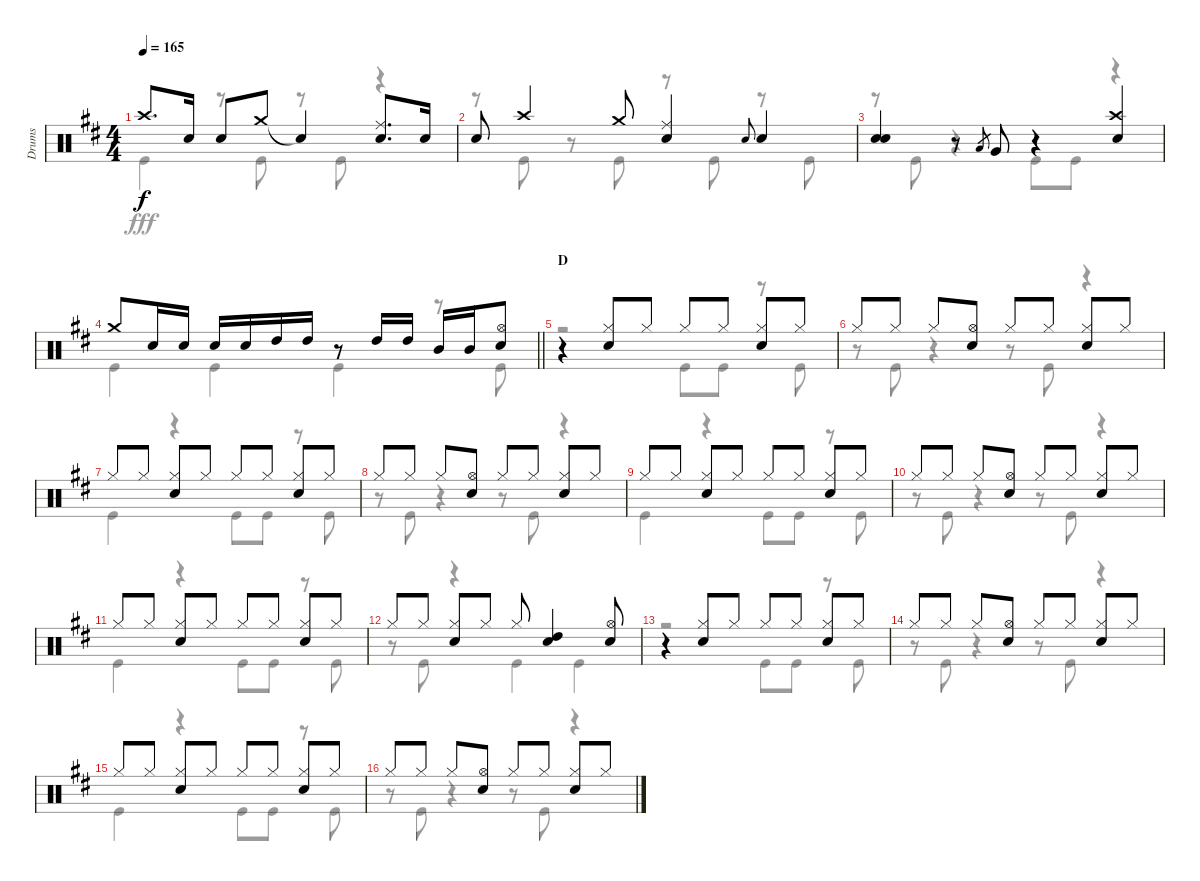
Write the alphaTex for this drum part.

\track ("Drums" "Drums") {instrument percussion}
\staff {score}
\articulation defaults
\voice
\ts (4 4)
\tempo 165
\clef neutral
\ks d "Crash high (hit)".8{d dy f} "Snare (hit) 2".16 "Snare (hit) 2".8 "Crash medium (hit)".8 "Snare (hit)"{t}.4
("Ride (middle)" "Snare (hit) 2").8{d} "Snare (hit) 2".16 |
"Snare (hit) 2".8 "Crash high (hit)".4 "Crash medium (hit)".8 ("Ride (middle)" "Snare (hit) 2").4 "Snare (hit) 2".8{gr onbeat} "Snare (hit) 2".4 |
("Snare (hit) 2" "Snare (hit) 2").4 r.8 "Low Tom (hit)".8{gr} "Very Low Tom (hit)".8 r.4 ("Crash high (hit)" "Snare (hit) 2").4 |
\barLineRight lightlight "Crash medium (hit)".8 "Snare (hit) 2".16 "Snare (hit) 2".16 "Snare (hit) 2".16 "Snare (hit) 2".16 "High Tom (hit)".16 "High Tom (hit)".16
r.8 "High Tom (hit)".16 "High Tom (hit)".16 "Mid Tom (hit)".16 "Mid Tom (hit)".16 ("Hi-Hat (open)" "Snare (hit) 2").8 |
\section ("" "D")
r.4 ("Hi-Hat (closed)" "Snare (hit) 2").8 "Hi-Hat (closed)".8 "Hi-Hat (closed)".8 "Hi-Hat (closed)".8 ("Hi-Hat (closed)" "Snare (hit) 2").8 "Hi-Hat (closed)".8 |
"Hi-Hat (closed)".8 "Hi-Hat (closed)".8 "Hi-Hat (closed)".8 ("Hi-Hat (open)" "Snare (hit) 2").8 "Hi-Hat (closed)".8 "Hi-Hat (closed)".8 ("Hi-Hat (closed)" "Snare (hit) 2").8 "Hi-Hat (closed)".8 |
"Hi-Hat (closed)".8 "Hi-Hat (closed)".8 ("Hi-Hat (closed)" "Snare (hit) 2").8 "Hi-Hat (closed)".8 "Hi-Hat (closed)".8 "Hi-Hat (closed)".8 ("Hi-Hat (closed)" "Snare (hit) 2").8 "Hi-Hat (closed)".8 |
"Hi-Hat (closed)".8 "Hi-Hat (closed)".8 "Hi-Hat (closed)".8 ("Hi-Hat (open)" "Snare (hit) 2").8 "Hi-Hat (closed)".8 "Hi-Hat (closed)".8 ("Hi-Hat (closed)" "Snare (hit) 2").8 "Hi-Hat (closed)".8 |
"Hi-Hat (closed)".8 "Hi-Hat (closed)".8 ("Hi-Hat (closed)" "Snare (hit) 2").8 "Hi-Hat (closed)".8 "Hi-Hat (closed)".8 "Hi-Hat (closed)".8 ("Hi-Hat (closed)" "Snare (hit) 2").8 "Hi-Hat (closed)".8 |
"Hi-Hat (closed)".8 "Hi-Hat (closed)".8 "Hi-Hat (closed)".8 ("Hi-Hat (open)" "Snare (hit) 2").8 "Hi-Hat (closed)".8 "Hi-Hat (closed)".8 ("Hi-Hat (closed)" "Snare (hit) 2").8 "Hi-Hat (closed)".8 |
"Hi-Hat (closed)".8 "Hi-Hat (closed)".8 ("Hi-Hat (closed)" "Snare (hit) 2").8 "Hi-Hat (closed)".8 "Hi-Hat (closed)".8 "Hi-Hat (closed)".8 ("Hi-Hat (closed)" "Snare (hit) 2").8 "Hi-Hat (closed)".8 |
"Hi-Hat (closed)".8 "Hi-Hat (closed)".8 ("Hi-Hat (closed)" "Snare (hit) 2").8 "Hi-Hat (closed)".8 "Hi-Hat (closed)".8 ("High Tom (hit)" "Snare (hit) 2").4 ("Hi-Hat (open)" "Snare (hit) 2").8 |
r.4 ("Hi-Hat (closed)" "Snare (hit) 2").8 "Hi-Hat (closed)".8 "Hi-Hat (closed)".8 "Hi-Hat (closed)".8 ("Hi-Hat (closed)" "Snare (hit) 2").8 "Hi-Hat (closed)".8 |
"Hi-Hat (closed)".8 "Hi-Hat (closed)".8 "Hi-Hat (closed)".8 ("Hi-Hat (open)" "Snare (hit) 2").8 "Hi-Hat (closed)".8 "Hi-Hat (closed)".8 ("Hi-Hat (closed)" "Snare (hit) 2").8 "Hi-Hat (closed)".8 |
"Hi-Hat (closed)".8 "Hi-Hat (closed)".8 ("Hi-Hat (closed)" "Snare (hit) 2").8 "Hi-Hat (closed)".8 "Hi-Hat (closed)".8 "Hi-Hat (closed)".8 ("Hi-Hat (closed)" "Snare (hit) 2").8 "Hi-Hat (closed)".8 |
"Hi-Hat (closed)".8 "Hi-Hat (closed)".8 "Hi-Hat (closed)".8 ("Hi-Hat (open)" "Snare (hit) 2").8 "Hi-Hat (closed)".8 "Hi-Hat (closed)".8 ("Hi-Hat (closed)" "Snare (hit) 2").8 "Hi-Hat (closed)".8
\voice
\clef neutral
\ottava regular
\simile none
\ks d "Kick (hit)".4{dy fff}
r.8 "Kick (hit)".8 r.8 "Kick (hit)".8 r.4 |
r.8 "Kick (hit)".8 r.8 "Kick (hit)".8 r.8 "Kick (hit)".8 r.8 "Kick (hit)".8 |
r.8 "Kick (hit)".8 r.4 "Kick (hit)".8 "Kick (hit)".8 r.4 |
\barLineRight lightlight "Kick (hit)".4 "Kick (hit)".4 "Kick (hit)".4
r.8 "Kick (hit)".8 |
r.2 "Kick (hit)".8 "Kick (hit)".8 r.8 "Kick (hit)".8 |
r.8 "Kick (hit)".8 r.4 r.8 "Kick (hit)".8 r.4 |
"Kick (hit)".4 r.4 "Kick (hit)".8 "Kick (hit)".8 r.8 "Kick (hit)".8 |
r.8 "Kick (hit)".8 r.4 r.8 "Kick (hit)".8 r.4 |
"Kick (hit)".4 r.4 "Kick (hit)".8 "Kick (hit)".8 r.8 "Kick (hit)".8 |
r.8 "Kick (hit)".8 r.4 r.8 "Kick (hit)".8 r.4 |
"Kick (hit)".4 r.4 "Kick (hit)".8 "Kick (hit)".8 r.8 "Kick (hit)".8 |
r.8 "Kick (hit)".8 r.4 "Kick (hit)".4 "Kick (hit)".4 |
r.2 "Kick (hit)".8 "Kick (hit)".8 r.8 "Kick (hit)".8 |
r.8 "Kick (hit)".8 r.4 r.8 "Kick (hit)".8 r.4 |
"Kick (hit)".4 r.4 "Kick (hit)".8 "Kick (hit)".8 r.8 "Kick (hit)".8 |
r.8 "Kick (hit)".8 r.4 r.8 "Kick (hit)".8 r.4
